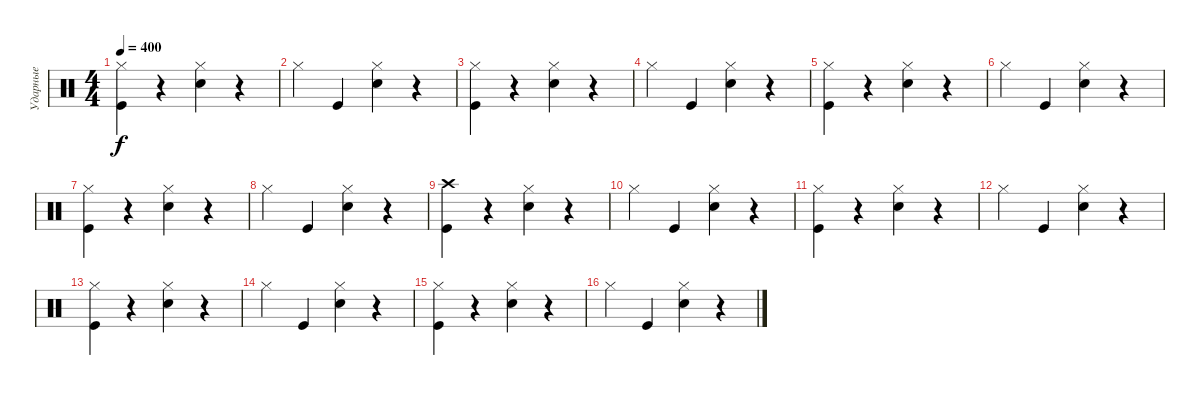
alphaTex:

\track ("Ударные" "Ударные") {instrument percussion}
\staff {score}
\articulation defaults
\ts (4 4)
\tempo 400
\clef neutral
\ks c
("Kick (hit)" "Hi-Hat (closed)").4{dy f} r.4 ("Snare (hit) 2" "Hi-Hat (closed)").4 r.4 |
"Hi-Hat (closed)".4 "Kick (hit)".4 ("Snare (hit) 2" "Hi-Hat (closed)").4 r.4 |
("Kick (hit)" "Hi-Hat (closed)").4 r.4 ("Snare (hit) 2" "Hi-Hat (closed)").4 r.4 |
"Hi-Hat (closed)".4 "Kick (hit)".4 ("Snare (hit) 2" "Hi-Hat (closed)").4 r.4 |
("Kick (hit)" "Hi-Hat (closed)").4 r.4 ("Snare (hit) 2" "Hi-Hat (closed)").4 r.4 |
"Hi-Hat (closed)".4 "Kick (hit)".4 ("Snare (hit) 2" "Hi-Hat (closed)").4 r.4 |
("Kick (hit)" "Hi-Hat (closed)").4 r.4 ("Snare (hit) 2" "Hi-Hat (closed)").4 r.4 |
"Hi-Hat (closed)".4 "Kick (hit)".4 ("Snare (hit) 2" "Hi-Hat (closed)").4 r.4 |
("Kick (hit)" "Crash high (hit)").4 r.4 ("Snare (hit) 2" "Hi-Hat (closed)").4 r.4 |
"Hi-Hat (closed)".4 "Kick (hit)".4 ("Snare (hit) 2" "Hi-Hat (closed)").4 r.4 |
("Kick (hit)" "Hi-Hat (closed)").4 r.4 ("Snare (hit) 2" "Hi-Hat (closed)").4 r.4 |
"Hi-Hat (closed)".4 "Kick (hit)".4 ("Snare (hit) 2" "Hi-Hat (closed)").4 r.4 |
("Kick (hit)" "Hi-Hat (closed)").4 r.4 ("Snare (hit) 2" "Hi-Hat (closed)").4 r.4 |
"Hi-Hat (closed)".4 "Kick (hit)".4 ("Snare (hit) 2" "Hi-Hat (closed)").4 r.4 |
("Kick (hit)" "Hi-Hat (closed)").4 r.4 ("Snare (hit) 2" "Hi-Hat (closed)").4 r.4 |
"Hi-Hat (closed)".4 "Kick (hit)".4 ("Snare (hit) 2" "Hi-Hat (closed)").4 r.4
